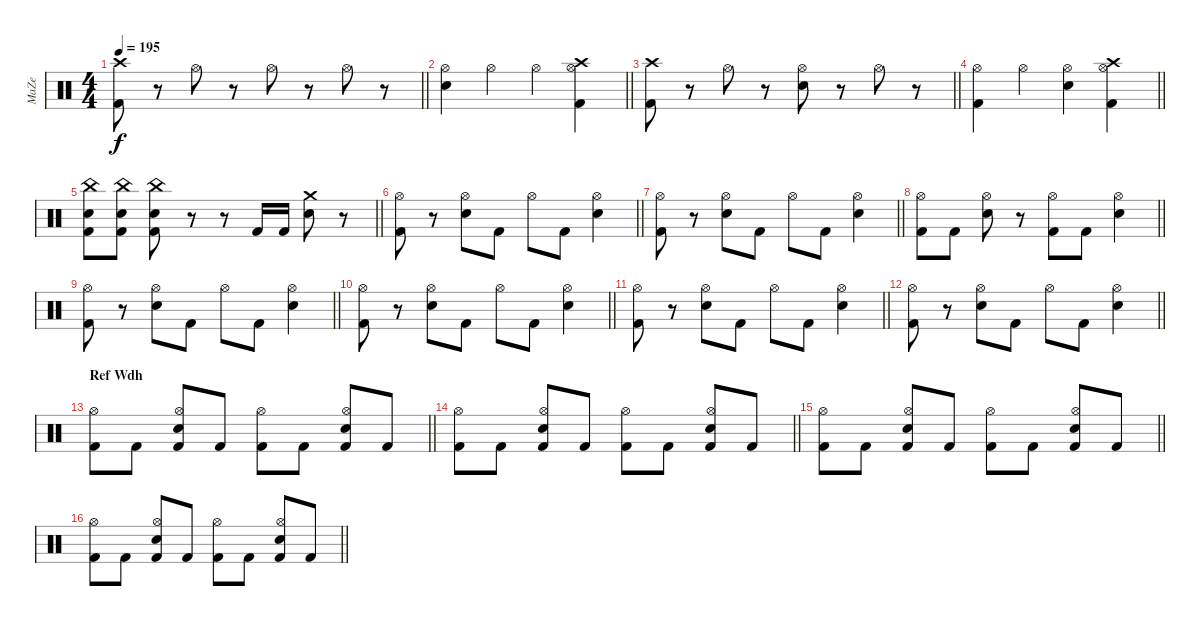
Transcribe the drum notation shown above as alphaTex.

\track ("MaZe" "MaZe") {instrument percussion}
\staff {score}
\articulation defaults
\ts (4 4)
\tempo 195
\clef neutral
\barLineRight lightlight
\ks c
("Crash high (hit)" "Kick (hit) 2").8{dy f} r.8 "Hi-Hat (open)".8 r.8 "Hi-Hat (open)".8 r.8 "Hi-Hat (open)".8 r.8 |
\barLineRight lightlight
("Snare (hit) 2" "Hi-Hat (open)").4 "Hi-Hat (open)".4 "Hi-Hat (open)".4 ("Crash high (hit)" "Hi-Hat (open)" "Kick (hit) 2").4 |
\barLineRight lightlight
("Crash high (hit)" "Kick (hit) 2").8 r.8 "Hi-Hat (open)".8 r.8 ("Snare (hit) 2" "Hi-Hat (open)").8 r.8 "Hi-Hat (open)".8 r.8 |
\barLineRight lightlight
("Hi-Hat (open)" "Kick (hit) 2").4 "Hi-Hat (open)".4 ("Snare (hit) 2" "Hi-Hat (open)").4 ("Crash high (hit)" "Hi-Hat (open)" "Kick (hit) 2").4 |
\barLineRight lightlight
("China (hit)" "Snare (hit) 2" "Kick (hit) 2").8 ("China (hit)" "Snare (hit) 2" "Kick (hit) 2").8 ("China (hit)" "Snare (hit) 2" "Kick (hit) 2").8 r.8 r.8 "Kick (hit) 2".16 "Kick (hit) 2".16 ("Crash medium (hit)" "Snare (hit) 2").8 r.8 |
\barLineRight lightlight
("Hi-Hat (open)" "Kick (hit) 2").8 r.8 ("Snare (hit) 2" "Hi-Hat (open)").8 "Kick (hit) 2".8 "Hi-Hat (open)".8 "Kick (hit) 2".8 ("Snare (hit) 2" "Hi-Hat (open)").4 |
\barLineRight lightlight
("Hi-Hat (open)" "Kick (hit) 2").8 r.8 ("Snare (hit) 2" "Hi-Hat (open)").8 "Kick (hit) 2".8 "Hi-Hat (open)".8 "Kick (hit) 2".8 ("Snare (hit) 2" "Hi-Hat (open)").4 |
\barLineRight lightlight
("Hi-Hat (open)" "Kick (hit) 2").8 "Kick (hit) 2".8 ("Snare (hit) 2" "Hi-Hat (open)").8 r.8 ("Hi-Hat (open)" "Kick (hit) 2").8 "Kick (hit) 2".8 ("Snare (hit) 2" "Hi-Hat (open)").4 |
\barLineRight lightlight
("Hi-Hat (open)" "Kick (hit) 2").8 r.8 ("Snare (hit) 2" "Hi-Hat (open)").8 "Kick (hit) 2".8 "Hi-Hat (open)".8 "Kick (hit) 2".8 ("Snare (hit) 2" "Hi-Hat (open)").4 |
\barLineRight lightlight
("Hi-Hat (open)" "Kick (hit) 2").8 r.8 ("Snare (hit) 2" "Hi-Hat (open)").8 "Kick (hit) 2".8 "Hi-Hat (open)".8 "Kick (hit) 2".8 ("Snare (hit) 2" "Hi-Hat (open)").4 |
\barLineRight lightlight
("Hi-Hat (open)" "Kick (hit) 2").8 r.8 ("Snare (hit) 2" "Hi-Hat (open)").8 "Kick (hit) 2".8 "Hi-Hat (open)".8 "Kick (hit) 2".8 ("Snare (hit) 2" "Hi-Hat (open)").4 |
\barLineRight lightlight
("Hi-Hat (open)" "Kick (hit) 2").8 r.8 ("Snare (hit) 2" "Hi-Hat (open)").8 "Kick (hit) 2".8 "Hi-Hat (open)".8 "Kick (hit) 2".8 ("Snare (hit) 2" "Hi-Hat (open)").4 |
\section ("" "Ref Wdh")
\barLineRight lightlight
("Hi-Hat (open)" "Kick (hit) 2").8 "Kick (hit) 2".8 ("Snare (hit) 2" "Hi-Hat (open)" "Kick (hit) 2").8 "Kick (hit) 2".8 ("Hi-Hat (open)" "Kick (hit) 2").8 "Kick (hit) 2".8 ("Snare (hit) 2" "Hi-Hat (open)" "Kick (hit) 2").8 "Kick (hit) 2".8 |
\barLineRight lightlight
("Hi-Hat (open)" "Kick (hit) 2").8 "Kick (hit) 2".8 ("Snare (hit) 2" "Hi-Hat (open)" "Kick (hit) 2").8 "Kick (hit) 2".8 ("Hi-Hat (open)" "Kick (hit) 2").8 "Kick (hit) 2".8 ("Snare (hit) 2" "Hi-Hat (open)" "Kick (hit) 2").8 "Kick (hit) 2".8 |
\barLineRight lightlight
("Hi-Hat (open)" "Kick (hit) 2").8 "Kick (hit) 2".8 ("Snare (hit) 2" "Hi-Hat (open)" "Kick (hit) 2").8 "Kick (hit) 2".8 ("Hi-Hat (open)" "Kick (hit) 2").8 "Kick (hit) 2".8 ("Snare (hit) 2" "Hi-Hat (open)" "Kick (hit) 2").8 "Kick (hit) 2".8 |
\barLineRight lightlight
("Hi-Hat (open)" "Kick (hit) 2").8 "Kick (hit) 2".8 ("Snare (hit) 2" "Hi-Hat (open)" "Kick (hit) 2").8 "Kick (hit) 2".8 ("Hi-Hat (open)" "Kick (hit) 2").8 "Kick (hit) 2".8 ("Snare (hit) 2" "Hi-Hat (open)" "Kick (hit) 2").8 "Kick (hit) 2".8
